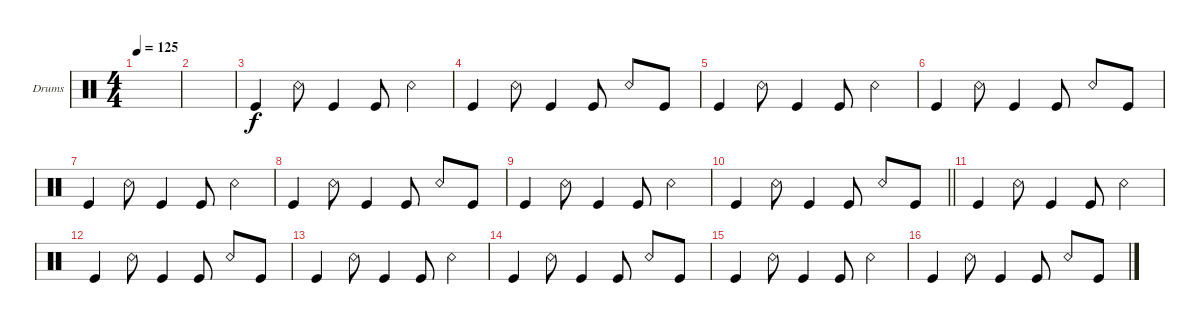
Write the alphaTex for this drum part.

\defaultSystemsLayout 4
\bracketExtendMode groupsimilarinstruments
\firstSystemTrackNameOrientation horizontal
\otherSystemsTrackNameOrientation horizontal
\track ("Drumkit" "Drums") {instrument percussion}
\staff {score}
\articulation defaults
\ts (4 4)
\tempo 125
\clef neutral
\ks c
|
|
\scale
0.472222 "Kick (hit)".4 "Snare (rim shot)".8 "Kick (hit)".4 "Kick (hit)".8 "Snare (rim shot)".4 |
\scale
0.263889 "Kick (hit)".4 "Snare (rim shot)".8 "Kick (hit)".4 "Kick (hit)".8 "Snare (rim shot)".8 "Kick (hit)".8 |
\scale
0.263889 "Kick (hit)".4 "Snare (rim shot)".8 "Kick (hit)".4 "Kick (hit)".8 "Snare (rim shot)".4 |
\scale
0.333333 "Kick (hit)".4 "Snare (rim shot)".8 "Kick (hit)".4 "Kick (hit)".8 "Snare (rim shot)".8 "Kick (hit)".8 |
\scale
0.333333 "Kick (hit)".4 "Snare (rim shot)".8 "Kick (hit)".4 "Kick (hit)".8 "Snare (rim shot)".4 |
\scale
0.333333 "Kick (hit)".4 "Snare (rim shot)".8 "Kick (hit)".4 "Kick (hit)".8 "Snare (rim shot)".8 "Kick (hit)".8 |
"Kick (hit)".4 "Snare (rim shot)".8 "Kick (hit)".4 "Kick (hit)".8 "Snare (rim shot)".4 |
\barLineRight lightlight "Kick (hit)".4 "Snare (rim shot)".8 "Kick (hit)".4 "Kick (hit)".8 "Snare (rim shot)".8 "Kick (hit)".8
|
"Kick (hit)".4 "Snare (rim shot)".8 "Kick (hit)".4 "Kick (hit)".8 "Snare (rim shot)".4 |
"Kick (hit)".4 "Snare (rim shot)".8 "Kick (hit)".4 "Kick (hit)".8 "Snare (rim shot)".8 "Kick (hit)".8 |
"Kick (hit)".4 "Snare (rim shot)".8 "Kick (hit)".4 "Kick (hit)".8 "Snare (rim shot)".4 |
"Kick (hit)".4 "Snare (rim shot)".8 "Kick (hit)".4 "Kick (hit)".8 "Snare (rim shot)".8 "Kick (hit)".8 |
"Kick (hit)".4 "Snare (rim shot)".8 "Kick (hit)".4 "Kick (hit)".8 "Snare (rim shot)".4 |
"Kick (hit)".4 "Snare (rim shot)".8 "Kick (hit)".4 "Kick (hit)".8 "Snare (rim shot)".8 "Kick (hit)".8
